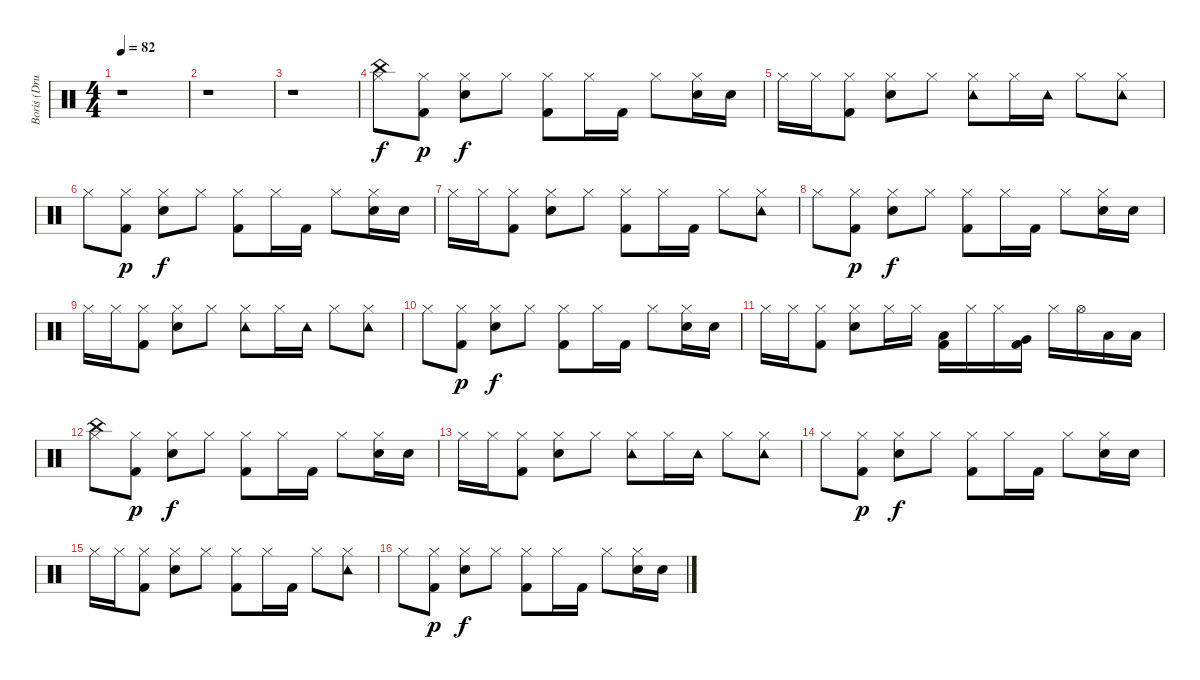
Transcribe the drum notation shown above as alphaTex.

\track ("Boris (Drums)" "Boris (Dru") {instrument percussion}
\staff {score}
\articulation defaults
\ts (4 4)
\tempo 82
\clef neutral
\ks c
r.1{dy f} |
r.1 |
r.1 |
("China (hit)" "Hi-Hat (closed)").8 ("Hi-Hat (closed)" "Kick (hit) 2").8{dy p} ("Snare (hit) 2" "Hi-Hat (closed)").8{dy f} "Hi-Hat (closed)".8 ("Kick (hit) 2" "Hi-Hat (closed)").8 "Hi-Hat (closed)".16 "Kick (hit) 2".16 "Hi-Hat (closed)".8 ("Hand Clap (hit)" "Hi-Hat (closed)").16 "Hand Clap (hit)".16 |
"Hi-Hat (closed)".16 "Hi-Hat (closed)".16 ("Kick (hit) 2" "Hi-Hat (closed)").8 ("Snare (hit) 2" "Hi-Hat (closed)").8 "Hi-Hat (closed)".8 ("Tambourine (hit)" "Hi-Hat (closed)").8 "Hi-Hat (closed)".16 "Tambourine (hit)".16 "Hi-Hat (closed)".8 ("Tambourine (hit)" "Hi-Hat (closed)").8 |
"Hi-Hat (closed)".8 ("Hi-Hat (closed)" "Kick (hit) 2").8{dy p} ("Snare (hit) 2" "Hi-Hat (closed)").8{dy f} "Hi-Hat (closed)".8 ("Kick (hit) 2" "Hi-Hat (closed)").8 "Hi-Hat (closed)".16 "Kick (hit) 2".16 "Hi-Hat (closed)".8 ("Hand Clap (hit)" "Hi-Hat (closed)").16 "Hand Clap (hit)".16 |
"Hi-Hat (closed)".16 "Hi-Hat (closed)".16 ("Kick (hit) 2" "Hi-Hat (closed)").8 ("Snare (hit) 2" "Hi-Hat (closed)").8 "Hi-Hat (closed)".8 ("Kick (hit) 2" "Hi-Hat (closed)").8 "Hi-Hat (closed)".16 "Kick (hit) 2".16 "Hi-Hat (closed)".8 ("Tambourine (hit)" "Hi-Hat (closed)").8 |
"Hi-Hat (closed)".8 ("Hi-Hat (closed)" "Kick (hit) 2").8{dy p} ("Snare (hit) 2" "Hi-Hat (closed)").8{dy f} "Hi-Hat (closed)".8 ("Kick (hit) 2" "Hi-Hat (closed)").8 "Hi-Hat (closed)".16 "Kick (hit) 2".16 "Hi-Hat (closed)".8 ("Hand Clap (hit)" "Hi-Hat (closed)").16 "Hand Clap (hit)".16 |
"Hi-Hat (closed)".16 "Hi-Hat (closed)".16 ("Kick (hit) 2" "Hi-Hat (closed)").8 ("Snare (hit) 2" "Hi-Hat (closed)").8 "Hi-Hat (closed)".8 ("Tambourine (hit)" "Hi-Hat (closed)").8 "Hi-Hat (closed)".16 "Tambourine (hit)".16 "Hi-Hat (closed)".8 ("Tambourine (hit)" "Hi-Hat (closed)").8 |
"Hi-Hat (closed)".8 ("Hi-Hat (closed)" "Kick (hit) 2").8{dy p} ("Snare (hit) 2" "Hi-Hat (closed)").8{dy f} "Hi-Hat (closed)".8 ("Kick (hit) 2" "Hi-Hat (closed)").8 "Hi-Hat (closed)".16 "Kick (hit) 2".16 "Hi-Hat (closed)".8 ("Hand Clap (hit)" "Hi-Hat (closed)").16 "Hand Clap (hit)".16 |
"Hi-Hat (closed)".16 "Hi-Hat (closed)".16 ("Kick (hit) 2" "Hi-Hat (closed)").8 ("Snare (hit) 2" "Hi-Hat (closed)").8 "Hi-Hat (closed)".16 "Hi-Hat (closed)".16 ("Low Tom (hit)" "Kick (hit) 2").16 "Hi-Hat (closed)".16 "Hi-Hat (closed)".16 ("Very Low Tom (hit)" "Kick (hit) 2").16 "Hi-Hat (closed)".16 "Hi-Hat (open)".16 "Low Floor Tom (hit)".16 "Low Floor Tom (hit)".16 |
("China (hit)" "Hi-Hat (closed)").8 ("Hi-Hat (closed)" "Kick (hit) 2").8{dy p} ("Snare (hit) 2" "Hi-Hat (closed)").8{dy f} "Hi-Hat (closed)".8 ("Kick (hit) 2" "Hi-Hat (closed)").8 "Hi-Hat (closed)".16 "Kick (hit) 2".16 "Hi-Hat (closed)".8 ("Hand Clap (hit)" "Hi-Hat (closed)").16 "Hand Clap (hit)".16 |
"Hi-Hat (closed)".16 "Hi-Hat (closed)".16 ("Kick (hit) 2" "Hi-Hat (closed)").8 ("Snare (hit) 2" "Hi-Hat (closed)").8 "Hi-Hat (closed)".8 ("Tambourine (hit)" "Hi-Hat (closed)").8 "Hi-Hat (closed)".16 "Tambourine (hit)".16 "Hi-Hat (closed)".8 ("Tambourine (hit)" "Hi-Hat (closed)").8 |
"Hi-Hat (closed)".8 ("Hi-Hat (closed)" "Kick (hit) 2").8{dy p} ("Snare (hit) 2" "Hi-Hat (closed)").8{dy f} "Hi-Hat (closed)".8 ("Kick (hit) 2" "Hi-Hat (closed)").8 "Hi-Hat (closed)".16 "Kick (hit) 2".16 "Hi-Hat (closed)".8 ("Hand Clap (hit)" "Hi-Hat (closed)").16 "Hand Clap (hit)".16 |
"Hi-Hat (closed)".16 "Hi-Hat (closed)".16 ("Kick (hit) 2" "Hi-Hat (closed)").8 ("Snare (hit) 2" "Hi-Hat (closed)").8 "Hi-Hat (closed)".8 ("Kick (hit) 2" "Hi-Hat (closed)").8 "Hi-Hat (closed)".16 "Kick (hit) 2".16 "Hi-Hat (closed)".8 ("Tambourine (hit)" "Hi-Hat (closed)").8 |
"Hi-Hat (closed)".8 ("Hi-Hat (closed)" "Kick (hit) 2").8{dy p} ("Snare (hit) 2" "Hi-Hat (closed)").8{dy f} "Hi-Hat (closed)".8 ("Kick (hit) 2" "Hi-Hat (closed)").8 "Hi-Hat (closed)".16 "Kick (hit) 2".16 "Hi-Hat (closed)".8 ("Hand Clap (hit)" "Hi-Hat (closed)").16 "Hand Clap (hit)".16
